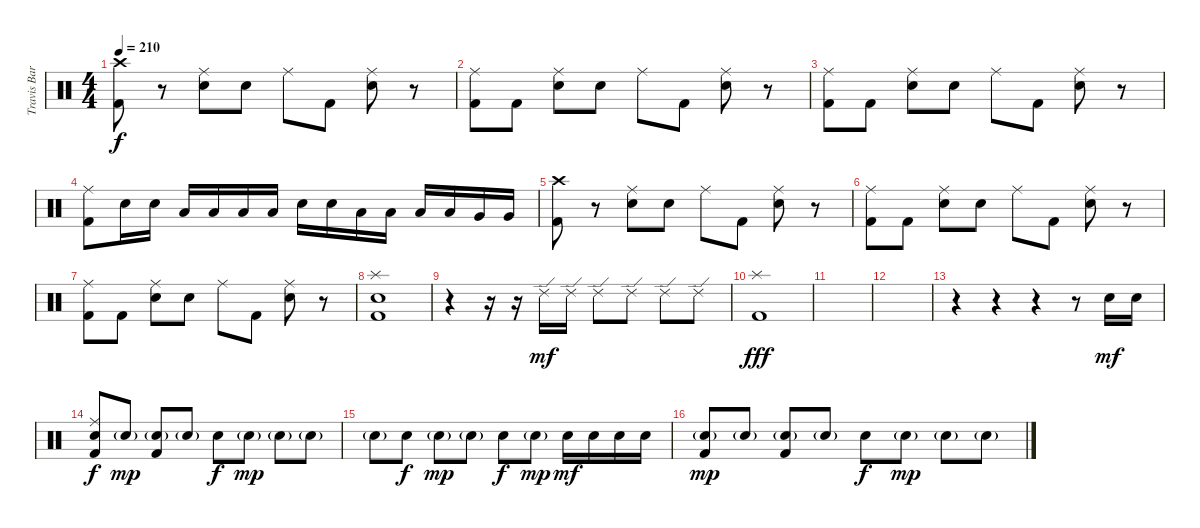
\track ("Travis Barker" "Travis Bar") {instrument percussion}
\staff {score}
\articulation defaults
\ts (4 4)
\tempo 210
\clef neutral
\ks c
("Crash high (hit)" "Kick (hit) 2").8{dy f} r.8 ("Ride (middle)" "Electric Snare (hit)").8 "Electric Snare (hit)".8 "Ride (middle)".8 "Kick (hit) 2".8 ("Ride (middle)" "Electric Snare (hit)").8 r.8 |
("Ride (middle)" "Kick (hit) 2").8 "Kick (hit) 2".8 ("Ride (middle)" "Electric Snare (hit)").8 "Electric Snare (hit)".8 "Ride (middle)".8 "Kick (hit) 2".8 ("Ride (middle)" "Electric Snare (hit)").8 r.8 |
("Ride (middle)" "Kick (hit) 2").8 "Kick (hit) 2".8 ("Ride (middle)" "Electric Snare (hit)").8 "Electric Snare (hit)".8 "Ride (middle)".8 "Kick (hit) 2".8 ("Ride (middle)" "Electric Snare (hit)").8 r.8 |
("Ride (middle)" "Kick (hit) 2").8 "Electric Snare (hit)".16 "Electric Snare (hit)".16 "Low Tom (hit)".16 "Low Tom (hit)".16 "Low Tom (hit)".16 "Low Tom (hit)".16 "Electric Snare (hit)".16 "Electric Snare (hit)".16 "Low Tom (hit)".16 "Low Tom (hit)".16 "Low Tom (hit)".16 "Low Tom (hit)".16 "Very Low Tom (hit)".16 "Very Low Tom (hit)".16 |
("Crash high (hit)" "Kick (hit) 2").8 r.8 ("Ride (middle)" "Electric Snare (hit)").8 "Electric Snare (hit)".8 "Ride (middle)".8 "Kick (hit) 2".8 ("Ride (middle)" "Electric Snare (hit)").8 r.8 |
("Ride (middle)" "Kick (hit) 2").8 "Kick (hit) 2".8 ("Ride (middle)" "Electric Snare (hit)").8 "Electric Snare (hit)".8 "Ride (middle)".8 "Kick (hit) 2".8 ("Ride (middle)" "Electric Snare (hit)").8 r.8 |
("Ride (middle)" "Kick (hit) 2").8 "Kick (hit) 2".8 ("Ride (middle)" "Electric Snare (hit)").8 "Electric Snare (hit)".8 "Ride (middle)".8 "Kick (hit) 2".8 ("Ride (middle)" "Electric Snare (hit)").8 r.8 |
("Splash (hit)" "Kick (hit) 2" "Electric Snare (hit)").1 |
r.4 r.16 r.16 "Ride (edge) 2".16{dy mf} "Ride (edge) 2".16 "Ride (edge) 2".8 "Ride (edge) 2".8 "Ride (edge) 2".8 "Ride (edge) 2".8 |
("Splash (hit)" "Kick (hit) 2").1{dy fff} |
|
|
r.4 r.4 r.4 r.8 "Electric Snare (hit)".16{dy mf} "Electric Snare (hit)".16 |
("Ride (middle)" "Electric Snare (hit)" "Kick (hit) 2").8{dy f} "Electric Snare (hit)"{g}.8{dy mp} ("Electric Snare (hit)"{g} "Kick (hit) 2").8 "Electric Snare (hit)"{g}.8 "Electric Snare (hit)".8{dy f} "Electric Snare (hit)"{g}.8{dy mp} "Electric Snare (hit)"{g}.8 "Electric Snare (hit)"{g}.8 |
"Snare (hit) 2"{g}.8 "Electric Snare (hit)".8{dy f} "Electric Snare (hit)"{g}.8{dy mp} "Electric Snare (hit)"{g}.8 "Electric Snare (hit)".8{dy f} "Snare (hit) 2"{g}.8{dy mp} "Electric Snare (hit)".16{dy mf} "Electric Snare (hit)".16 "Electric Snare (hit)".16 "Electric Snare (hit)".16 |
("Electric Snare (hit)"{g} "Kick (hit) 2").8{dy mp} "Electric Snare (hit)"{g}.8 ("Electric Snare (hit)"{g} "Kick (hit) 2").8 "Electric Snare (hit)"{g}.8 "Electric Snare (hit)".8{dy f} "Electric Snare (hit)"{g}.8{dy mp} "Electric Snare (hit)"{g}.8 "Electric Snare (hit)"{g}.8
